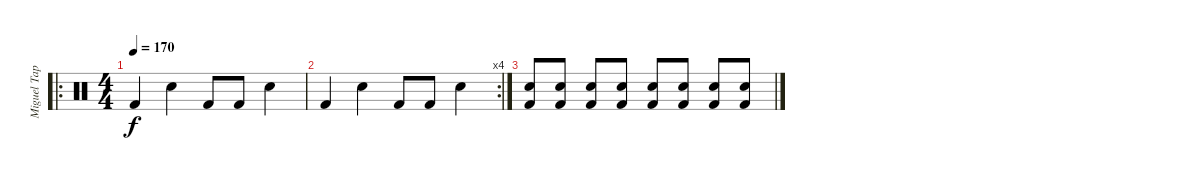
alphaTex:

\track ("Miguel Tapia" "Miguel Tap") {instrument percussion}
\staff {score}
\articulation defaults
\ro
\ts (4 4)
\tempo 170
\clef neutral
\ks c "Kick (hit) 2".4{dy f} "Snare (hit) 2".4 "Kick (hit) 2".8 "Kick (hit) 2".8 "Snare (hit) 2".4
|
\rc 4 "Kick (hit) 2".4 "Snare (hit) 2".4 "Kick (hit) 2".8 "Kick (hit) 2".8 "Snare (hit) 2".4
|
("Kick (hit) 2" "Snare (hit) 2").8 ("Snare (hit) 2" "Kick (hit) 2").8 ("Kick (hit) 2" "Snare (hit) 2").8 ("Kick (hit) 2" "Snare (hit) 2").8 ("Snare (hit) 2" "Kick (hit) 2").8 ("Snare (hit) 2" "Kick (hit) 2").8 ("Snare (hit) 2" "Kick (hit) 2").8 ("Kick (hit) 2" "Snare (hit) 2").8
